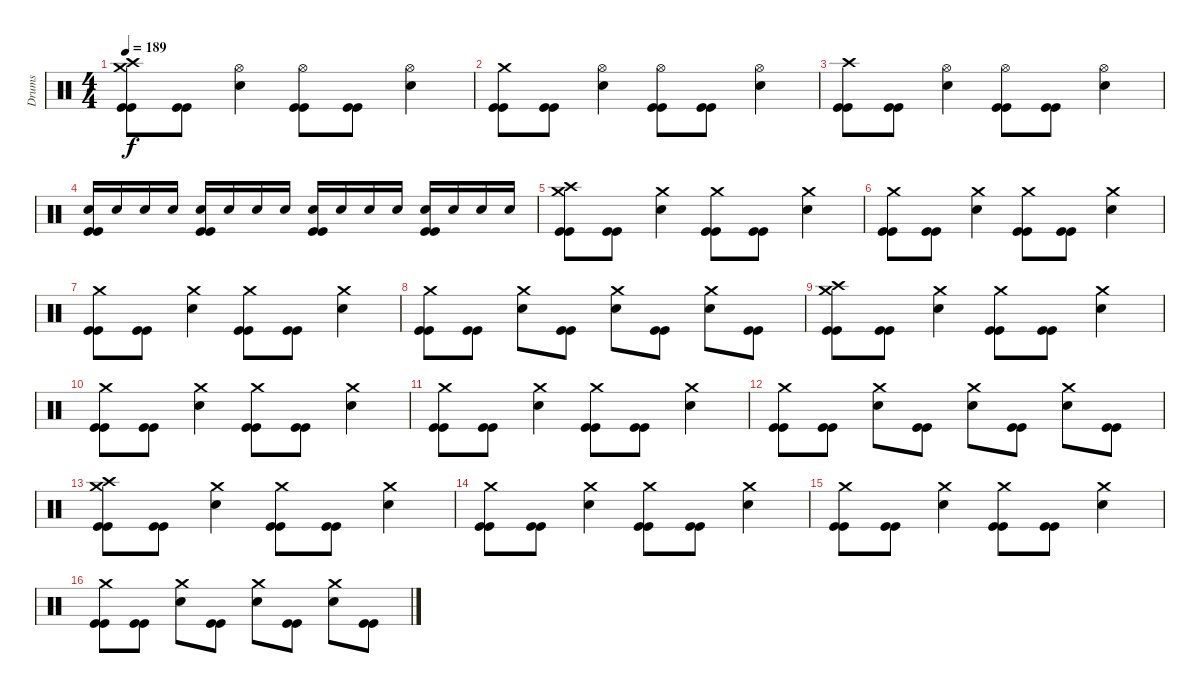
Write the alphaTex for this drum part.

\track ("Drums" "Drums") {instrument percussion}
\staff {score}
\articulation defaults
\ts (4 4)
\tempo 189
\clef neutral
\ks c
("Crash high (hit)" "Crash medium (hit)" "Kick (hit)" "Kick (hit)").8{dy f} ("Kick (hit)" "Kick (hit)").8 ("Hi-Hat (open)" "Electric Snare (hit)").4 ("Hi-Hat (open)" "Kick (hit)" "Kick (hit)").8 ("Kick (hit)" "Kick (hit)").8 ("Hi-Hat (open)" "Electric Snare (hit)").4 |
("Crash medium (hit)" "Kick (hit)" "Kick (hit)").8 ("Kick (hit)" "Kick (hit)").8 ("Hi-Hat (open)" "Electric Snare (hit)").4 ("Hi-Hat (open)" "Kick (hit)" "Kick (hit)").8 ("Kick (hit)" "Kick (hit)").8 ("Hi-Hat (open)" "Electric Snare (hit)").4 |
("Crash high (hit)" "Kick (hit)" "Kick (hit)").8 ("Kick (hit)" "Kick (hit)").8 ("Hi-Hat (open)" "Electric Snare (hit)").4 ("Hi-Hat (open)" "Kick (hit)" "Kick (hit)").8 ("Kick (hit)" "Kick (hit)").8 ("Hi-Hat (open)" "Electric Snare (hit)").4 |
("Electric Snare (hit)" "Kick (hit)" "Kick (hit)").16 "Electric Snare (hit)".16 "Electric Snare (hit)".16 "Electric Snare (hit)".16 ("Electric Snare (hit)" "Kick (hit)" "Kick (hit)").16 "Electric Snare (hit)".16 "Electric Snare (hit)".16 "Electric Snare (hit)".16 ("Electric Snare (hit)" "Kick (hit)" "Kick (hit)").16 "Electric Snare (hit)".16 "Electric Snare (hit)".16 "Electric Snare (hit)".16 ("Electric Snare (hit)" "Kick (hit)" "Kick (hit)").16 "Electric Snare (hit)".16 "Electric Snare (hit)".16 "Electric Snare (hit)".16 |
("Crash high (hit)" "Crash medium (hit)" "Kick (hit)" "Kick (hit)").8 ("Kick (hit)" "Kick (hit)").8 ("Crash medium (hit)" "Electric Snare (hit)").4 ("Crash medium (hit)" "Kick (hit)" "Kick (hit)").8 ("Kick (hit)" "Kick (hit)").8 ("Crash medium (hit)" "Electric Snare (hit)").4 |
("Crash medium (hit)" "Kick (hit)" "Kick (hit)").8 ("Kick (hit)" "Kick (hit)").8 ("Crash medium (hit)" "Electric Snare (hit)").4 ("Crash medium (hit)" "Kick (hit)" "Kick (hit)").8 ("Kick (hit)" "Kick (hit)").8 ("Crash medium (hit)" "Electric Snare (hit)").4 |
("Crash medium (hit)" "Kick (hit)" "Kick (hit)").8 ("Kick (hit)" "Kick (hit)").8 ("Crash medium (hit)" "Electric Snare (hit)").4 ("Crash medium (hit)" "Kick (hit)" "Kick (hit)").8 ("Kick (hit)" "Kick (hit)").8 ("Crash medium (hit)" "Electric Snare (hit)").4 |
("Crash medium (hit)" "Kick (hit)" "Kick (hit)").8 ("Kick (hit)" "Kick (hit)").8 ("Crash medium (hit)" "Electric Snare (hit)").8 ("Kick (hit)" "Kick (hit)").8 ("Crash medium (hit)" "Electric Snare (hit)").8 ("Kick (hit)" "Kick (hit)").8 ("Crash medium (hit)" "Electric Snare (hit)").8 ("Kick (hit)" "Kick (hit)").8 |
("Crash high (hit)" "Crash medium (hit)" "Kick (hit)" "Kick (hit)").8 ("Kick (hit)" "Kick (hit)").8 ("Crash medium (hit)" "Electric Snare (hit)").4 ("Crash medium (hit)" "Kick (hit)" "Kick (hit)").8 ("Kick (hit)" "Kick (hit)").8 ("Crash medium (hit)" "Electric Snare (hit)").4 |
("Crash medium (hit)" "Kick (hit)" "Kick (hit)").8 ("Kick (hit)" "Kick (hit)").8 ("Crash medium (hit)" "Electric Snare (hit)").4 ("Crash medium (hit)" "Kick (hit)" "Kick (hit)").8 ("Kick (hit)" "Kick (hit)").8 ("Crash medium (hit)" "Electric Snare (hit)").4 |
("Crash medium (hit)" "Kick (hit)" "Kick (hit)").8 ("Kick (hit)" "Kick (hit)").8 ("Crash medium (hit)" "Electric Snare (hit)").4 ("Crash medium (hit)" "Kick (hit)" "Kick (hit)").8 ("Kick (hit)" "Kick (hit)").8 ("Crash medium (hit)" "Electric Snare (hit)").4 |
("Crash medium (hit)" "Kick (hit)" "Kick (hit)").8 ("Kick (hit)" "Kick (hit)").8 ("Crash medium (hit)" "Electric Snare (hit)").8 ("Kick (hit)" "Kick (hit)").8 ("Crash medium (hit)" "Electric Snare (hit)").8 ("Kick (hit)" "Kick (hit)").8 ("Crash medium (hit)" "Electric Snare (hit)").8 ("Kick (hit)" "Kick (hit)").8 |
("Crash high (hit)" "Crash medium (hit)" "Kick (hit)" "Kick (hit)").8 ("Kick (hit)" "Kick (hit)").8 ("Crash medium (hit)" "Electric Snare (hit)").4 ("Crash medium (hit)" "Kick (hit)" "Kick (hit)").8 ("Kick (hit)" "Kick (hit)").8 ("Crash medium (hit)" "Electric Snare (hit)").4 |
("Crash medium (hit)" "Kick (hit)" "Kick (hit)").8 ("Kick (hit)" "Kick (hit)").8 ("Crash medium (hit)" "Electric Snare (hit)").4 ("Crash medium (hit)" "Kick (hit)" "Kick (hit)").8 ("Kick (hit)" "Kick (hit)").8 ("Crash medium (hit)" "Electric Snare (hit)").4 |
("Crash medium (hit)" "Kick (hit)" "Kick (hit)").8 ("Kick (hit)" "Kick (hit)").8 ("Crash medium (hit)" "Electric Snare (hit)").4 ("Crash medium (hit)" "Kick (hit)" "Kick (hit)").8 ("Kick (hit)" "Kick (hit)").8 ("Crash medium (hit)" "Electric Snare (hit)").4 |
("Crash medium (hit)" "Kick (hit)" "Kick (hit)").8 ("Kick (hit)" "Kick (hit)").8 ("Crash medium (hit)" "Electric Snare (hit)").8 ("Kick (hit)" "Kick (hit)").8 ("Crash medium (hit)" "Electric Snare (hit)").8 ("Kick (hit)" "Kick (hit)").8 ("Crash medium (hit)" "Electric Snare (hit)").8 ("Kick (hit)" "Kick (hit)").8
